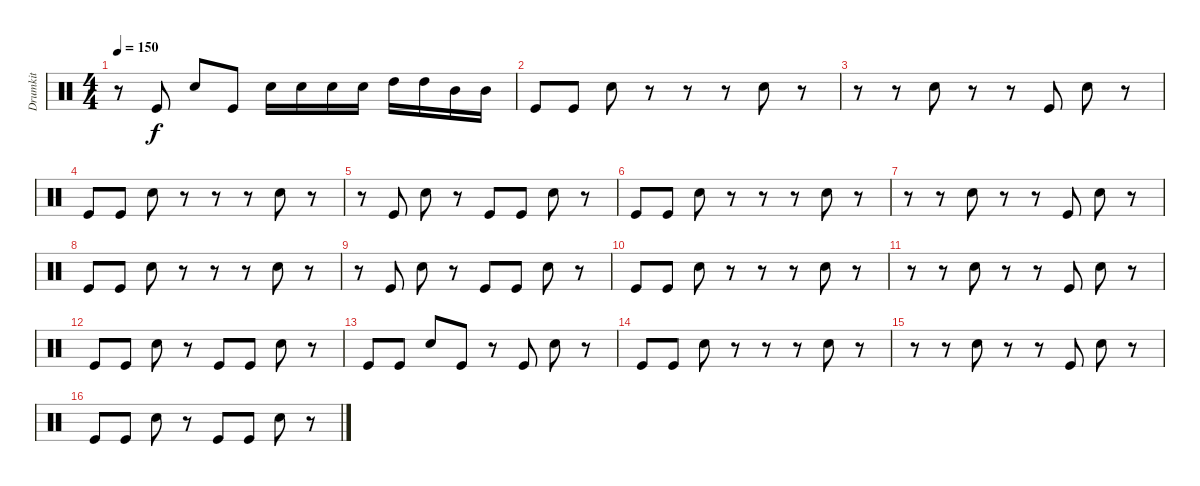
\track ("Drumkit" "Drumkit") {instrument percussion}
\staff {score}
\articulation defaults
\ts (4 4)
\tempo 150
\clef neutral
\ks c
r.8{dy f} "Kick (hit)".8 "Snare (hit) 2".8 "Kick (hit)".8 "Snare (hit) 2".16 "Snare (hit) 2".16 "Snare (hit) 2".16 "Snare (hit) 2".16 "High Tom (hit)".16 "High Tom (hit)".16 "Mid Tom (hit)".16 "Mid Tom (hit)".16 |
"Kick (hit)".8 "Kick (hit)".8 "Snare (hit) 2".8 r.8 r.8 r.8 "Snare (hit) 2".8 r.8 |
r.8 r.8 "Snare (hit) 2".8 r.8 r.8 "Kick (hit)".8 "Snare (hit) 2".8 r.8 |
"Kick (hit)".8 "Kick (hit)".8 "Snare (hit) 2".8 r.8 r.8 r.8 "Snare (hit) 2".8 r.8 |
r.8 "Kick (hit)".8 "Snare (hit) 2".8 r.8 "Kick (hit)".8 "Kick (hit)".8 "Snare (hit) 2".8 r.8 |
"Kick (hit)".8 "Kick (hit)".8 "Snare (hit) 2".8 r.8 r.8 r.8 "Snare (hit) 2".8 r.8 |
r.8 r.8 "Snare (hit) 2".8 r.8 r.8 "Kick (hit)".8 "Snare (hit) 2".8 r.8 |
"Kick (hit)".8 "Kick (hit)".8 "Snare (hit) 2".8 r.8 r.8 r.8 "Snare (hit) 2".8 r.8 |
r.8 "Kick (hit)".8 "Snare (hit) 2".8 r.8 "Kick (hit)".8 "Kick (hit)".8 "Snare (hit) 2".8 r.8 |
"Kick (hit)".8 "Kick (hit)".8 "Snare (hit) 2".8 r.8 r.8 r.8 "Snare (hit) 2".8 r.8 |
r.8 r.8 "Snare (hit) 2".8 r.8 r.8 "Kick (hit)".8 "Snare (hit) 2".8 r.8 |
"Kick (hit)".8 "Kick (hit)".8 "Snare (hit) 2".8 r.8 "Kick (hit)".8 "Kick (hit)".8 "Snare (hit) 2".8 r.8 |
"Kick (hit)".8 "Kick (hit)".8 "Snare (hit) 2".8 "Kick (hit)".8 r.8 "Kick (hit)".8 "Snare (hit) 2".8 r.8 |
"Kick (hit)".8 "Kick (hit)".8 "Snare (hit) 2".8 r.8 r.8 r.8 "Snare (hit) 2".8 r.8 |
r.8 r.8 "Snare (hit) 2".8 r.8 r.8 "Kick (hit)".8 "Snare (hit) 2".8 r.8 |
"Kick (hit)".8 "Kick (hit)".8 "Snare (hit) 2".8 r.8 "Kick (hit)".8 "Kick (hit)".8 "Snare (hit) 2".8 r.8
